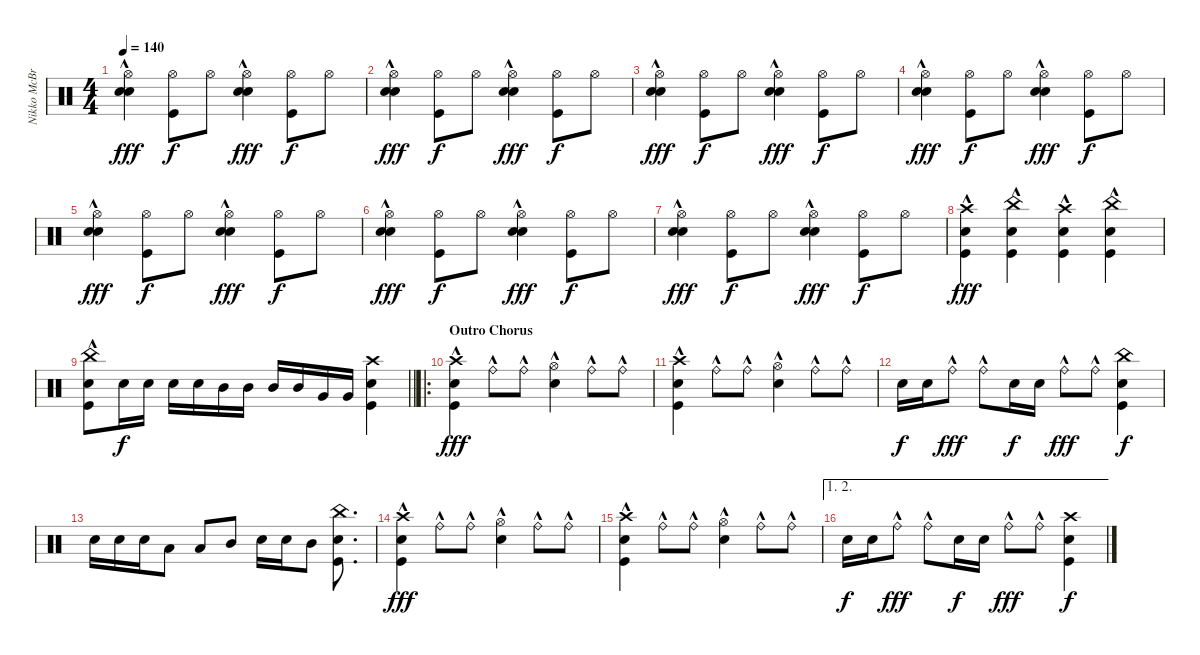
\track ("Nikko McBrain" "Nikko McBr") {instrument percussion}
\staff {score}
\articulation defaults
\ts (4 4)
\tempo 140
\clef neutral
\ks c
("Hi-Hat (open)" "Snare (hit) 2"{hac} "Snare (hit) 2"{hac}).4{dy fff} ("Hi-Hat (open)" "Kick (hit)").8{dy f} "Hi-Hat (open)".8 ("Hi-Hat (open)" "Snare (hit) 2"{hac} "Snare (hit) 2"{hac}).4{dy fff} ("Hi-Hat (open)" "Kick (hit)").8{dy f} "Hi-Hat (open)".8 |
("Hi-Hat (open)" "Snare (hit) 2"{hac} "Snare (hit) 2"{hac}).4{dy fff} ("Hi-Hat (open)" "Kick (hit)").8{dy f} "Hi-Hat (open)".8 ("Hi-Hat (open)" "Snare (hit) 2"{hac} "Snare (hit) 2"{hac}).4{dy fff} ("Hi-Hat (open)" "Kick (hit)").8{dy f} "Hi-Hat (open)".8 |
("Hi-Hat (open)" "Snare (hit) 2"{hac} "Snare (hit) 2"{hac}).4{dy fff} ("Hi-Hat (open)" "Kick (hit)").8{dy f} "Hi-Hat (open)".8 ("Hi-Hat (open)" "Snare (hit) 2"{hac} "Snare (hit) 2"{hac}).4{dy fff} ("Hi-Hat (open)" "Kick (hit)").8{dy f} "Hi-Hat (open)".8 |
("Hi-Hat (open)" "Snare (hit) 2"{hac} "Snare (hit) 2"{hac}).4{dy fff} ("Hi-Hat (open)" "Kick (hit)").8{dy f} "Hi-Hat (open)".8 ("Hi-Hat (open)" "Snare (hit) 2"{hac} "Snare (hit) 2"{hac}).4{dy fff} ("Hi-Hat (open)" "Kick (hit)").8{dy f} "Hi-Hat (open)".8 |
("Hi-Hat (open)" "Snare (hit) 2"{hac} "Snare (hit) 2"{hac}).4{dy fff} ("Hi-Hat (open)" "Kick (hit)").8{dy f} "Hi-Hat (open)".8 ("Hi-Hat (open)" "Snare (hit) 2"{hac} "Snare (hit) 2"{hac}).4{dy fff} ("Hi-Hat (open)" "Kick (hit)").8{dy f} "Hi-Hat (open)".8 |
("Hi-Hat (open)" "Snare (hit) 2"{hac} "Snare (hit) 2"{hac}).4{dy fff} ("Hi-Hat (open)" "Kick (hit)").8{dy f} "Hi-Hat (open)".8 ("Hi-Hat (open)" "Snare (hit) 2"{hac} "Snare (hit) 2"{hac}).4{dy fff} ("Hi-Hat (open)" "Kick (hit)").8{dy f} "Hi-Hat (open)".8 |
("Hi-Hat (open)" "Snare (hit) 2"{hac} "Snare (hit) 2"{hac}).4{dy fff} ("Hi-Hat (open)" "Kick (hit)").8{dy f} "Hi-Hat (open)".8 ("Hi-Hat (open)" "Snare (hit) 2"{hac} "Snare (hit) 2"{hac}).4{dy fff} ("Hi-Hat (open)" "Kick (hit)").8{dy f} "Hi-Hat (open)".8 |
("Crash high (hit)" "Snare (hit) 2" "Kick (hit)"{hac}).4{dy fff} ("China (hit)" "Snare (hit) 2" "Kick (hit)"{hac}).4 ("Crash high (hit)" "Snare (hit) 2" "Kick (hit)"{hac}).4 ("China (hit)" "Snare (hit) 2" "Kick (hit)"{hac}).4 |
\barLineRight lightlight
("China (hit)" "Snare (hit) 2" "Kick (hit)"{hac}).8 "Snare (hit) 2".16{dy f} "Snare (hit) 2".16 "Snare (hit) 2".16 "Snare (hit) 2".16 "Mid Tom (hit)".16 "Mid Tom (hit)".16 "Mid Tom (hit)".16 "Mid Tom (hit)".16 "Very Low Tom (hit)".16 "Very Low Tom (hit)".16 ("Crash high (hit)" "Snare (hit) 2" "Kick (hit)").4 |
\ro
\section ("" "Outro Chorus")
("Crash high (hit)"{hac} "Kick (hit)"{hac} "Snare (hit) 2"{hac}).4{dy fff} "Ride (bell)"{hac}.8 "Ride (bell)"{hac}.8 ("Hi-Hat (open)" "Snare (hit) 2"{hac}).4 "Ride (bell)"{hac}.8 "Ride (bell)"{hac}.8 |
("Crash high (hit)"{hac} "Kick (hit)"{hac} "Snare (hit) 2"{hac}).4 "Ride (bell)"{hac}.8 "Ride (bell)"{hac}.8 ("Hi-Hat (open)" "Snare (hit) 2"{hac}).4 "Ride (bell)"{hac}.8 "Ride (bell)"{hac}.8 |
"Snare (hit) 2".16{dy f} "Snare (hit) 2".16 "Ride (bell)"{hac}.8{dy fff} "Ride (bell)"{hac}.8 "Snare (hit) 2".16{dy f} "Snare (hit) 2".16 "Ride (bell)"{hac}.8{dy fff} "Ride (bell)"{hac}.8 ("China (hit)" "Kick (hit)" "Snare (hit) 2").4{dy f} |
"Snare (hit) 2".16 "Snare (hit) 2".16 "Snare (hit) 2".16 "Low Floor Tom (hit)".8 "Low Floor Tom (hit)".8 "Mid Tom (hit)".8 "Snare (hit) 2".16 "Snare (hit) 2".16 "Mid Tom (hit)".8 ("China (hit)" "Snare (hit) 2" "Kick (hit)").8{d} |
("Crash high (hit)"{hac} "Kick (hit)"{hac} "Snare (hit) 2"{hac}).4{dy fff} "Ride (bell)"{hac}.8 "Ride (bell)"{hac}.8 ("Hi-Hat (open)" "Snare (hit) 2"{hac}).4 "Ride (bell)"{hac}.8 "Ride (bell)"{hac}.8 |
("Crash high (hit)"{hac} "Kick (hit)"{hac} "Snare (hit) 2"{hac}).4 "Ride (bell)"{hac}.8 "Ride (bell)"{hac}.8 ("Hi-Hat (open)" "Snare (hit) 2"{hac}).4 "Ride (bell)"{hac}.8 "Ride (bell)"{hac}.8 |
\ae (1 2)
"Snare (hit) 2".16{dy f} "Snare (hit) 2".16 "Ride (bell)"{hac}.8{dy fff} "Ride (bell)"{hac}.8 "Snare (hit) 2".16{dy f} "Snare (hit) 2".16 "Ride (bell)"{hac}.8{dy fff} "Ride (bell)"{hac}.8 ("Crash high (hit)" "Kick (hit)" "Snare (hit) 2").4{dy f}
